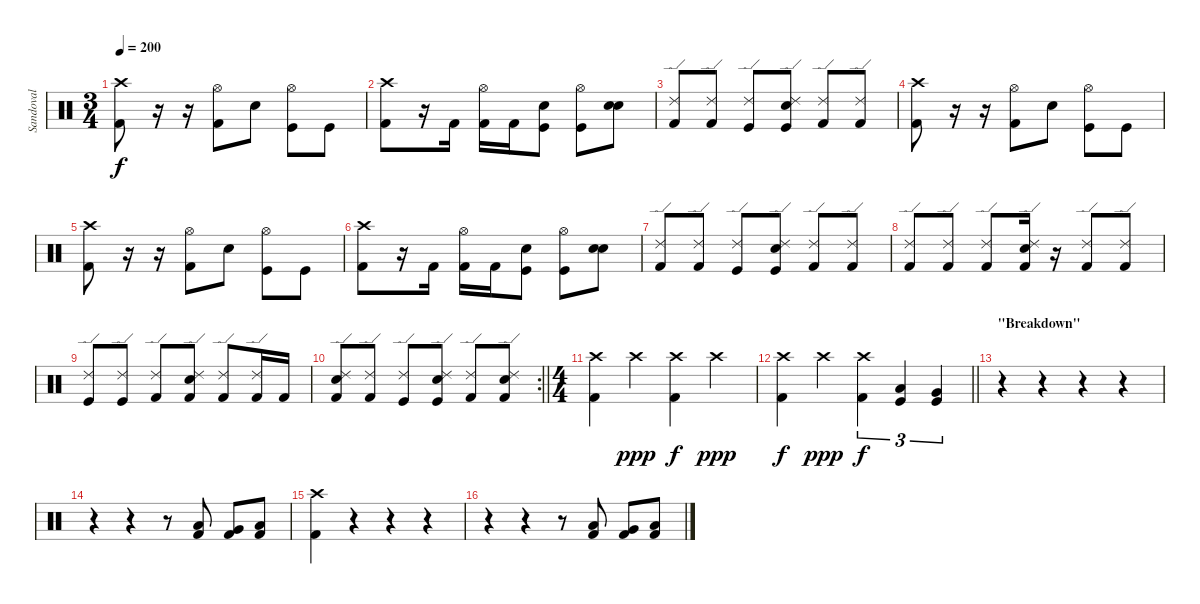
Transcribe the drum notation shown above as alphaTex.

\track ("Sandoval" "Sandoval") {instrument percussion}
\staff {score}
\articulation defaults
\ts (3 4)
\tempo 200
\clef neutral
\ks c
("Crash high (hit)" "Kick (hit) 2").8{dy f} r.16 r.16 ("Hi-Hat (open)" "Kick (hit) 2").8 "Electric Snare (hit)".8 ("Hi-Hat (open)" "Kick (hit)").8 "Kick (hit)".8 |
("Crash high (hit)" "Kick (hit) 2").8 r.16 "Kick (hit) 2".16 ("Hi-Hat (open)" "Kick (hit) 2").16 "Kick (hit) 2".16 ("Electric Snare (hit)" "Kick (hit)").8 ("Hi-Hat (open)" "Kick (hit)").8 ("Electric Snare (hit)" "Snare (hit)").8 |
("Ride (edge) 2" "Kick (hit) 2").8 ("Ride (edge) 2" "Kick (hit) 2").8 ("Ride (edge) 2" "Kick (hit)").8 ("Ride (edge) 2" "Electric Snare (hit)" "Kick (hit)").8 ("Ride (edge) 2" "Kick (hit) 2").8 ("Ride (edge) 2" "Kick (hit) 2").8 |
("Crash high (hit)" "Kick (hit) 2").8 r.16 r.16 ("Hi-Hat (open)" "Kick (hit) 2").8 "Electric Snare (hit)".8 ("Hi-Hat (open)" "Kick (hit)").8 "Kick (hit)".8 |
("Crash high (hit)" "Kick (hit) 2").8 r.16 r.16 ("Hi-Hat (open)" "Kick (hit) 2").8 "Electric Snare (hit)".8 ("Hi-Hat (open)" "Kick (hit)").8 "Kick (hit)".8 |
("Crash high (hit)" "Kick (hit) 2").8 r.16 "Kick (hit) 2".16 ("Hi-Hat (open)" "Kick (hit) 2").16 "Kick (hit) 2".16 ("Electric Snare (hit)" "Kick (hit)").8 ("Hi-Hat (open)" "Kick (hit)").8 ("Electric Snare (hit)" "Snare (hit)").8 |
("Ride (edge) 2" "Kick (hit) 2").8 ("Ride (edge) 2" "Kick (hit) 2").8 ("Ride (edge) 2" "Kick (hit)").8 ("Ride (edge) 2" "Electric Snare (hit)" "Kick (hit)").8 ("Ride (edge) 2" "Kick (hit) 2").8 ("Ride (edge) 2" "Kick (hit) 2").8 |
("Ride (edge) 2" "Kick (hit) 2").8 ("Ride (edge) 2" "Kick (hit) 2").8 ("Ride (edge) 2" "Kick (hit) 2").8 ("Ride (edge) 2" "Electric Snare (hit)" "Kick (hit) 2").16 r.16 ("Ride (edge) 2" "Kick (hit) 2").8 ("Ride (edge) 2" "Kick (hit) 2").8 |
("Ride (edge) 2" "Kick (hit)").8 ("Ride (edge) 2" "Kick (hit)").8 ("Ride (edge) 2" "Kick (hit) 2").8 ("Ride (edge) 2" "Electric Snare (hit)" "Kick (hit) 2").8 ("Ride (edge) 2" "Kick (hit) 2").8 ("Ride (edge) 2" "Kick (hit) 2").16 "Kick (hit) 2".16 |
\rc 2
\barLineRight lightlight
("Ride (edge) 2" "Electric Snare (hit)" "Kick (hit) 2").8 ("Ride (edge) 2" "Kick (hit) 2").8 ("Ride (edge) 2" "Kick (hit)").8 ("Ride (edge) 2" "Electric Snare (hit)" "Kick (hit)").8 ("Ride (edge) 2" "Kick (hit) 2").8 ("Ride (edge) 2" "Electric Snare (hit)" "Kick (hit) 2").8 |
\ts (4 4)
("Crash high (hit)" "Kick (hit) 2").4 "Crash high (hit)".4{dy ppp} ("Crash high (hit)" "Kick (hit) 2").4{dy f} "Crash high (hit)".4{dy ppp} |
\barLineRight lightlight
("Crash high (hit)" "Kick (hit) 2").4{dy f} "Crash high (hit)".4{dy ppp} ("Crash high (hit)" "Kick (hit) 2").4{tu (3 2) dy f} ("Low Tom (hit)" "Kick (hit)").4{tu (3 2)} ("Very Low Tom (hit)" "Kick (hit)").4{tu (3 2)} |
\section ("" "\"Breakdown\"")
r.4 r.4 r.4 r.4 |
r.4 r.4 r.8 ("Low Tom (hit)" "Kick (hit) 2").8 ("Very Low Tom (hit)" "Kick (hit) 2").8 ("Low Floor Tom (hit)" "Kick (hit) 2").8 |
("Crash high (hit)" "Kick (hit) 2").4 r.4 r.4 r.4 |
r.4 r.4 r.8 ("Low Tom (hit)" "Kick (hit) 2").8 ("Very Low Tom (hit)" "Kick (hit) 2").8 ("Low Floor Tom (hit)" "Kick (hit) 2").8
